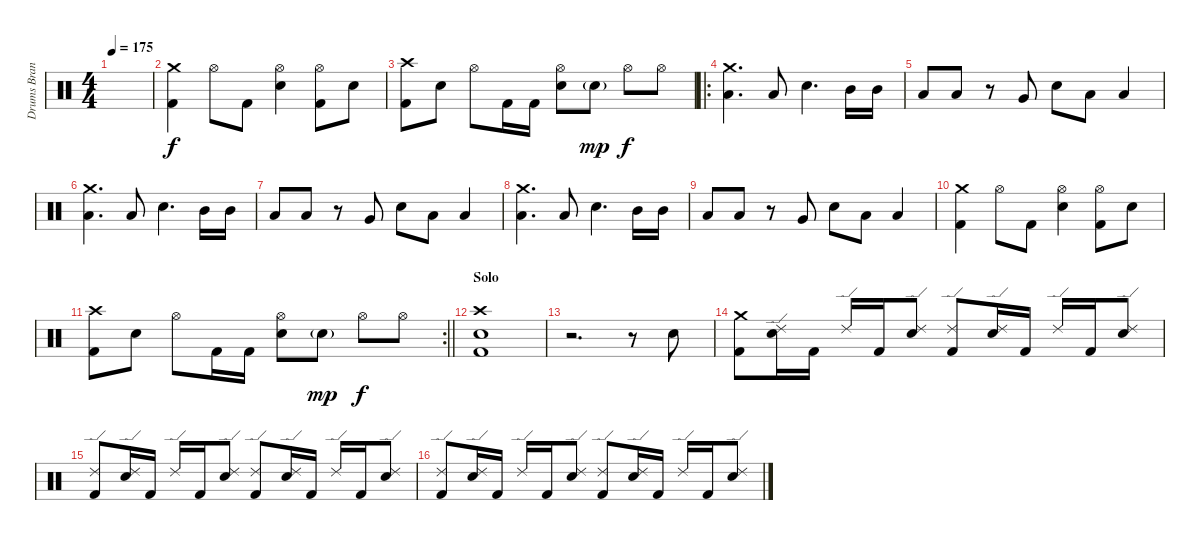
\track ("Drums Brandon" "Drums Bran") {instrument percussion}
\staff {score}
\articulation defaults
\ts (4 4)
\tempo 175
\clef neutral
\ks c
|
("Crash medium (hit)" "Kick (hit) 2").4 "Hi-Hat (open)".8 "Kick (hit) 2".8 ("Hi-Hat (open)" "Electric Snare (hit)").4 ("Hi-Hat (open)" "Kick (hit) 2").8 "Electric Snare (hit)".8 |
("Crash high (hit)" "Kick (hit) 2").8 "Electric Snare (hit)".8 "Hi-Hat (open)".8 "Kick (hit) 2".16 "Kick (hit) 2".16 ("Hi-Hat (open)" "Electric Snare (hit)").8 "Electric Snare (hit)"{g}.8{dy mp} "Hi-Hat (open)".8{dy f} "Hi-Hat (open)".8 |
\ro
("Crash medium (hit)" "Low Tom (hit)").4{d} "Low Tom (hit)".8 "Electric Snare (hit)".4{d} "Mid Tom (hit)".16 "Mid Tom (hit)".16 |
"Low Tom (hit)".8 "Low Tom (hit)".8 r.8 "Very Low Tom (hit)".8 "Electric Snare (hit)".8 "Low Tom (hit)".8 "Low Tom (hit)".4 |
("Crash medium (hit)" "Low Tom (hit)").4{d} "Low Tom (hit)".8 "Electric Snare (hit)".4{d} "Mid Tom (hit)".16 "Mid Tom (hit)".16 |
"Low Tom (hit)".8 "Low Tom (hit)".8 r.8 "Very Low Tom (hit)".8 "Electric Snare (hit)".8 "Low Tom (hit)".8 "Low Tom (hit)".4 |
("Crash medium (hit)" "Low Tom (hit)").4{d} "Low Tom (hit)".8 "Electric Snare (hit)".4{d} "Mid Tom (hit)".16 "Mid Tom (hit)".16 |
"Low Tom (hit)".8 "Low Tom (hit)".8 r.8 "Very Low Tom (hit)".8 "Electric Snare (hit)".8 "Low Tom (hit)".8 "Low Tom (hit)".4 |
("Crash medium (hit)" "Kick (hit) 2").4 "Hi-Hat (open)".8 "Kick (hit) 2".8 ("Hi-Hat (open)" "Electric Snare (hit)").4 ("Hi-Hat (open)" "Kick (hit) 2").8 "Electric Snare (hit)".8 |
\rc 2
\barLineRight lightlight
("Crash high (hit)" "Kick (hit) 2").8 "Electric Snare (hit)".8 "Hi-Hat (open)".8 "Kick (hit) 2".16 "Kick (hit) 2".16 ("Hi-Hat (open)" "Electric Snare (hit)").8 "Electric Snare (hit)"{g}.8{dy mp} "Hi-Hat (open)".8{dy f} "Hi-Hat (open)".8 |
\section ("" "Solo")
("Crash high (hit)" "Electric Snare (hit)" "Kick (hit) 2").1 |
r.2{d} r.8 "Electric Snare (hit)".8 |
("Crash medium (hit)" "Kick (hit) 2").8 ("Ride (edge) 2" "Electric Snare (hit)").16 "Kick (hit) 2".16 "Ride (edge) 2".16 "Kick (hit) 2".16 ("Ride (edge) 2" "Electric Snare (hit)").8 ("Ride (edge) 2" "Kick (hit) 2").8 ("Ride (edge) 2" "Electric Snare (hit)").16 "Kick (hit) 2".16 "Ride (edge) 2".16 "Kick (hit) 2".16 ("Ride (edge) 2" "Electric Snare (hit)").8 |
("Ride (edge) 2" "Kick (hit) 2").8 ("Ride (edge) 2" "Electric Snare (hit)").16 "Kick (hit) 2".16 "Ride (edge) 2".16 "Kick (hit) 2".16 ("Ride (edge) 2" "Electric Snare (hit)").8 ("Ride (edge) 2" "Kick (hit) 2").8 ("Ride (edge) 2" "Electric Snare (hit)").16 "Kick (hit) 2".16 "Ride (edge) 2".16 "Kick (hit) 2".16 ("Ride (edge) 2" "Electric Snare (hit)").8 |
("Ride (edge) 2" "Kick (hit) 2").8 ("Ride (edge) 2" "Electric Snare (hit)").16 "Kick (hit) 2".16 "Ride (edge) 2".16 "Kick (hit) 2".16 ("Ride (edge) 2" "Electric Snare (hit)").8 ("Ride (edge) 2" "Kick (hit) 2").8 ("Ride (edge) 2" "Electric Snare (hit)").16 "Kick (hit) 2".16 "Ride (edge) 2".16 "Kick (hit) 2".16 ("Ride (edge) 2" "Electric Snare (hit)").8
